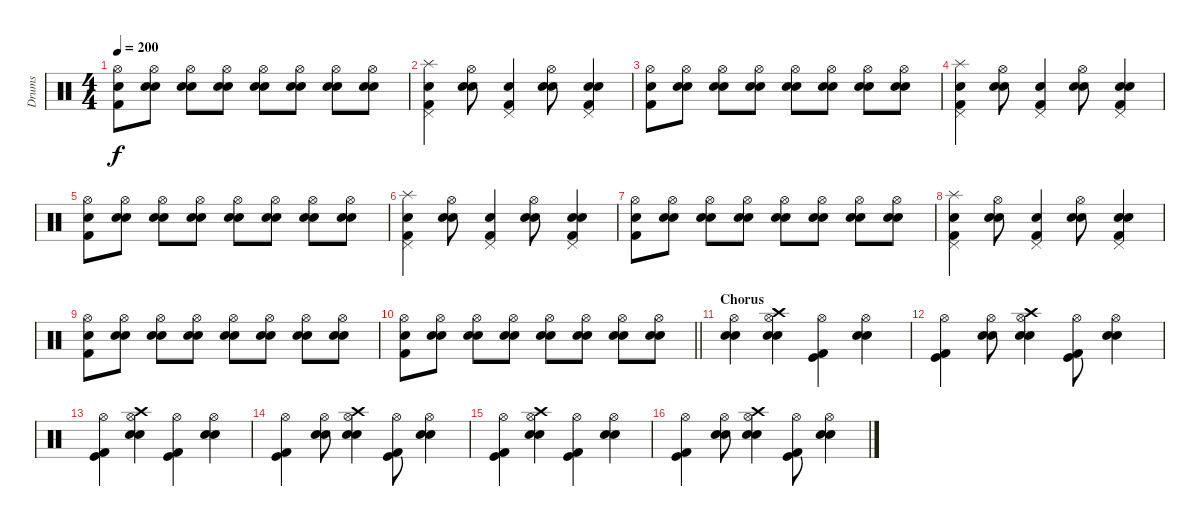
\track ("Drums" "Drums") {instrument percussion}
\staff {score}
\articulation defaults
\ts (4 4)
\tempo 200
\clef neutral
\ks c
("Hi-Hat (open)" "Snare (hit) 2" "Kick (hit) 2").8{dy f} ("Hi-Hat (open)" "Snare (hit) 2" "Electric Snare (hit)").8 ("Hi-Hat (open)" "Snare (hit) 2" "Electric Snare (hit)").8 ("Hi-Hat (open)" "Snare (hit) 2" "Electric Snare (hit)").8 ("Hi-Hat (open)" "Snare (hit) 2" "Electric Snare (hit)").8 ("Hi-Hat (open)" "Snare (hit) 2" "Electric Snare (hit)").8 ("Hi-Hat (open)" "Snare (hit) 2" "Electric Snare (hit)").8 ("Hi-Hat (open)" "Snare (hit) 2" "Electric Snare (hit)").8 |
("Pedal Hi-Hat (hit)" "Splash (hit)" "Snare (hit) 2" "Kick (hit) 2").4 ("Hi-Hat (open)" "Snare (hit) 2" "Electric Snare (hit)").8 ("Pedal Hi-Hat (hit)" "Snare (hit) 2" "Kick (hit) 2").4 ("Hi-Hat (open)" "Snare (hit) 2" "Electric Snare (hit)").8 ("Pedal Hi-Hat (hit)" "Snare (hit) 2" "Electric Snare (hit)" "Kick (hit) 2").4 |
("Hi-Hat (open)" "Snare (hit) 2" "Kick (hit) 2").8 ("Hi-Hat (open)" "Snare (hit) 2" "Electric Snare (hit)").8 ("Hi-Hat (open)" "Snare (hit) 2" "Electric Snare (hit)").8 ("Hi-Hat (open)" "Snare (hit) 2" "Electric Snare (hit)").8 ("Hi-Hat (open)" "Snare (hit) 2" "Electric Snare (hit)").8 ("Hi-Hat (open)" "Snare (hit) 2" "Electric Snare (hit)").8 ("Hi-Hat (open)" "Snare (hit) 2" "Electric Snare (hit)").8 ("Hi-Hat (open)" "Snare (hit) 2" "Electric Snare (hit)").8 |
("Pedal Hi-Hat (hit)" "Splash (hit)" "Snare (hit) 2" "Kick (hit) 2").4 ("Hi-Hat (open)" "Snare (hit) 2" "Electric Snare (hit)").8 ("Pedal Hi-Hat (hit)" "Snare (hit) 2" "Kick (hit) 2").4 ("Hi-Hat (open)" "Snare (hit) 2" "Electric Snare (hit)").8 ("Pedal Hi-Hat (hit)" "Snare (hit) 2" "Electric Snare (hit)" "Kick (hit) 2").4 |
("Hi-Hat (open)" "Snare (hit) 2" "Kick (hit) 2").8 ("Hi-Hat (open)" "Snare (hit) 2" "Electric Snare (hit)").8 ("Hi-Hat (open)" "Snare (hit) 2" "Electric Snare (hit)").8 ("Hi-Hat (open)" "Snare (hit) 2" "Electric Snare (hit)").8 ("Hi-Hat (open)" "Snare (hit) 2" "Electric Snare (hit)").8 ("Hi-Hat (open)" "Snare (hit) 2" "Electric Snare (hit)").8 ("Hi-Hat (open)" "Snare (hit) 2" "Electric Snare (hit)").8 ("Hi-Hat (open)" "Snare (hit) 2" "Electric Snare (hit)").8 |
("Pedal Hi-Hat (hit)" "Splash (hit)" "Snare (hit) 2" "Kick (hit) 2").4 ("Hi-Hat (open)" "Snare (hit) 2" "Electric Snare (hit)").8 ("Pedal Hi-Hat (hit)" "Snare (hit) 2" "Kick (hit) 2").4 ("Hi-Hat (open)" "Snare (hit) 2" "Electric Snare (hit)").8 ("Pedal Hi-Hat (hit)" "Snare (hit) 2" "Electric Snare (hit)" "Kick (hit) 2").4 |
("Hi-Hat (open)" "Snare (hit) 2" "Kick (hit) 2").8 ("Hi-Hat (open)" "Snare (hit) 2" "Electric Snare (hit)").8 ("Hi-Hat (open)" "Snare (hit) 2" "Electric Snare (hit)").8 ("Hi-Hat (open)" "Snare (hit) 2" "Electric Snare (hit)").8 ("Hi-Hat (open)" "Snare (hit) 2" "Electric Snare (hit)").8 ("Hi-Hat (open)" "Snare (hit) 2" "Electric Snare (hit)").8 ("Hi-Hat (open)" "Snare (hit) 2" "Electric Snare (hit)").8 ("Hi-Hat (open)" "Snare (hit) 2" "Electric Snare (hit)").8 |
("Pedal Hi-Hat (hit)" "Splash (hit)" "Snare (hit) 2" "Kick (hit) 2").4 ("Hi-Hat (open)" "Snare (hit) 2" "Electric Snare (hit)").8 ("Pedal Hi-Hat (hit)" "Snare (hit) 2" "Kick (hit) 2").4 ("Hi-Hat (open)" "Snare (hit) 2" "Electric Snare (hit)").8 ("Pedal Hi-Hat (hit)" "Snare (hit) 2" "Electric Snare (hit)" "Kick (hit) 2").4 |
("Hi-Hat (open)" "Snare (hit) 2" "Kick (hit) 2").8 ("Hi-Hat (open)" "Snare (hit) 2" "Electric Snare (hit)").8 ("Hi-Hat (open)" "Snare (hit) 2" "Electric Snare (hit)").8 ("Hi-Hat (open)" "Snare (hit) 2" "Electric Snare (hit)").8 ("Hi-Hat (open)" "Snare (hit) 2" "Electric Snare (hit)").8 ("Hi-Hat (open)" "Snare (hit) 2" "Electric Snare (hit)").8 ("Hi-Hat (open)" "Snare (hit) 2" "Electric Snare (hit)").8 ("Hi-Hat (open)" "Snare (hit) 2" "Electric Snare (hit)").8 |
\barLineRight lightlight
("Hi-Hat (open)" "Snare (hit) 2" "Kick (hit) 2").8 ("Hi-Hat (open)" "Snare (hit) 2" "Electric Snare (hit)").8 ("Hi-Hat (open)" "Snare (hit) 2" "Electric Snare (hit)").8 ("Hi-Hat (open)" "Snare (hit) 2" "Electric Snare (hit)").8 ("Hi-Hat (open)" "Snare (hit) 2" "Electric Snare (hit)").8 ("Hi-Hat (open)" "Snare (hit) 2" "Electric Snare (hit)").8 ("Hi-Hat (open)" "Snare (hit) 2" "Electric Snare (hit)").8 ("Hi-Hat (open)" "Snare (hit) 2" "Electric Snare (hit)").8 |
\section ("" "Chorus")
("Hi-Hat (open)" "Snare (hit) 2" "Electric Snare (hit)").4 ("Hi-Hat (open)" "Crash high (hit)" "Snare (hit) 2" "Electric Snare (hit)").4 ("Hi-Hat (open)" "Kick (hit)" "Kick (hit) 2").4 ("Hi-Hat (open)" "Snare (hit) 2" "Electric Snare (hit)").4 |
("Hi-Hat (open)" "Kick (hit)" "Kick (hit) 2").4 ("Hi-Hat (open)" "Snare (hit) 2" "Electric Snare (hit)").8 ("Hi-Hat (open)" "Crash high (hit)" "Snare (hit) 2" "Electric Snare (hit)").4 ("Hi-Hat (open)" "Kick (hit)" "Kick (hit) 2").8 ("Hi-Hat (open)" "Snare (hit) 2" "Electric Snare (hit)").4 |
("Hi-Hat (open)" "Kick (hit)" "Kick (hit) 2").4 ("Hi-Hat (open)" "Crash high (hit)" "Snare (hit) 2" "Electric Snare (hit)").4 ("Hi-Hat (open)" "Kick (hit)" "Kick (hit) 2").4 ("Hi-Hat (open)" "Snare (hit) 2" "Electric Snare (hit)").4 |
("Hi-Hat (open)" "Kick (hit)" "Kick (hit) 2").4 ("Hi-Hat (open)" "Snare (hit) 2" "Electric Snare (hit)").8 ("Hi-Hat (open)" "Crash high (hit)" "Snare (hit) 2" "Electric Snare (hit)").4 ("Hi-Hat (open)" "Kick (hit)" "Kick (hit) 2").8 ("Hi-Hat (open)" "Snare (hit) 2" "Electric Snare (hit)").4 |
("Hi-Hat (open)" "Kick (hit)" "Kick (hit) 2").4 ("Hi-Hat (open)" "Crash high (hit)" "Snare (hit) 2" "Electric Snare (hit)").4 ("Hi-Hat (open)" "Kick (hit)" "Kick (hit) 2").4 ("Hi-Hat (open)" "Snare (hit) 2" "Electric Snare (hit)").4 |
("Hi-Hat (open)" "Kick (hit)" "Kick (hit) 2").4 ("Hi-Hat (open)" "Snare (hit) 2" "Electric Snare (hit)").8 ("Hi-Hat (open)" "Crash high (hit)" "Snare (hit) 2" "Electric Snare (hit)").4 ("Hi-Hat (open)" "Kick (hit)" "Kick (hit) 2").8 ("Hi-Hat (open)" "Snare (hit) 2" "Electric Snare (hit)").4
